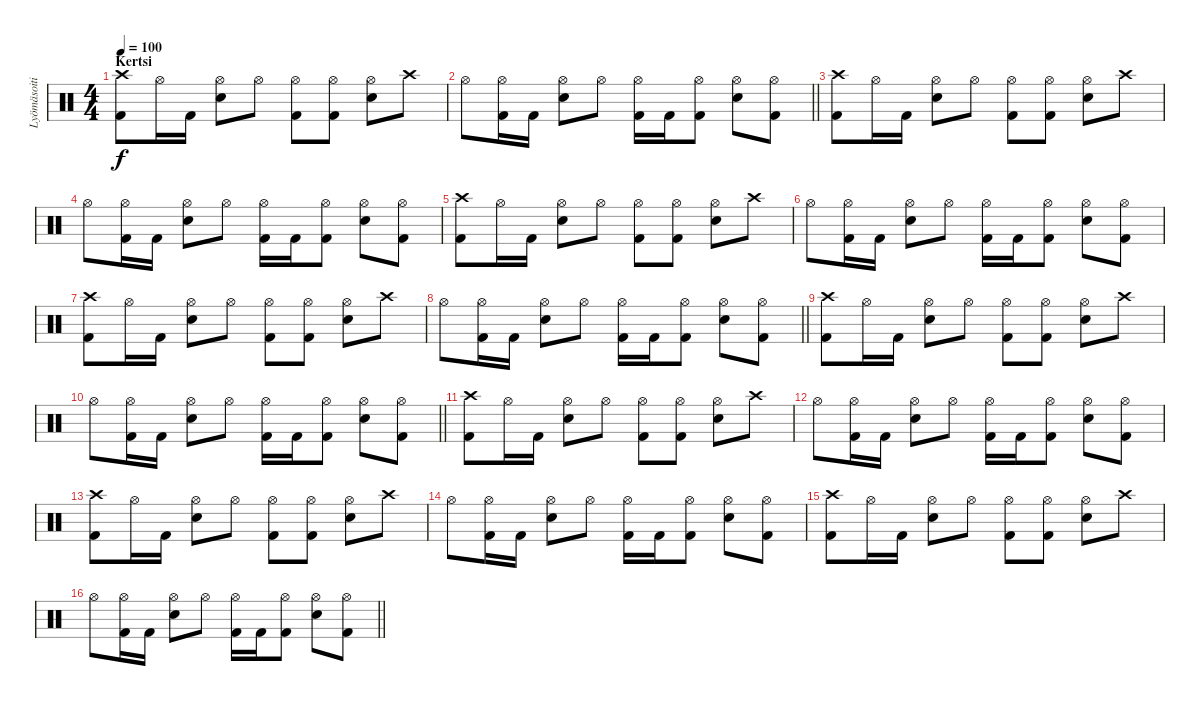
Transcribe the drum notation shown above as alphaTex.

\track ("Lyömäsoitin" "Lyömäsoiti") {instrument percussion}
\staff {score}
\articulation defaults
\ts (4 4)
\section ("" "Kertsi")
\tempo 100
\clef neutral
\ks c
("Crash high (hit)" "Kick (hit) 2").8{dy f} "Hi-Hat (open)".16 "Kick (hit) 2".16 ("Hi-Hat (open)" "Snare (hit) 2").8 "Hi-Hat (open)".8 ("Hi-Hat (open)" "Kick (hit) 2").8 ("Hi-Hat (open)" "Kick (hit) 2").8 ("Hi-Hat (open)" "Snare (hit) 2").8 "Crash high (hit)".8 |
\barLineRight lightlight "Hi-Hat (open)".8
("Hi-Hat (open)" "Kick (hit) 2").16 "Kick (hit) 2".16 ("Hi-Hat (open)" "Snare (hit) 2").8 "Hi-Hat (open)".8 ("Hi-Hat (open)" "Kick (hit) 2").16 "Kick (hit) 2".16 ("Hi-Hat (open)" "Kick (hit) 2").8 ("Hi-Hat (open)" "Snare (hit) 2").8 ("Hi-Hat (open)" "Kick (hit) 2").8 |
("Crash high (hit)" "Kick (hit) 2").8 "Hi-Hat (open)".16 "Kick (hit) 2".16 ("Hi-Hat (open)" "Snare (hit) 2").8 "Hi-Hat (open)".8 ("Hi-Hat (open)" "Kick (hit) 2").8 ("Hi-Hat (open)" "Kick (hit) 2").8 ("Hi-Hat (open)" "Snare (hit) 2").8 "Crash high (hit)".8 |
"Hi-Hat (open)".8 ("Hi-Hat (open)" "Kick (hit) 2").16 "Kick (hit) 2".16 ("Hi-Hat (open)" "Snare (hit) 2").8 "Hi-Hat (open)".8 ("Hi-Hat (open)" "Kick (hit) 2").16 "Kick (hit) 2".16 ("Hi-Hat (open)" "Kick (hit) 2").8 ("Hi-Hat (open)" "Snare (hit) 2").8 ("Hi-Hat (open)" "Kick (hit) 2").8 |
("Crash high (hit)" "Kick (hit) 2").8 "Hi-Hat (open)".16 "Kick (hit) 2".16 ("Hi-Hat (open)" "Snare (hit) 2").8 "Hi-Hat (open)".8 ("Hi-Hat (open)" "Kick (hit) 2").8 ("Hi-Hat (open)" "Kick (hit) 2").8 ("Hi-Hat (open)" "Snare (hit) 2").8 "Crash high (hit)".8 |
"Hi-Hat (open)".8 ("Hi-Hat (open)" "Kick (hit) 2").16 "Kick (hit) 2".16 ("Hi-Hat (open)" "Snare (hit) 2").8 "Hi-Hat (open)".8 ("Hi-Hat (open)" "Kick (hit) 2").16 "Kick (hit) 2".16 ("Hi-Hat (open)" "Kick (hit) 2").8 ("Hi-Hat (open)" "Snare (hit) 2").8 ("Hi-Hat (open)" "Kick (hit) 2").8 |
("Crash high (hit)" "Kick (hit) 2").8 "Hi-Hat (open)".16 "Kick (hit) 2".16 ("Hi-Hat (open)" "Snare (hit) 2").8 "Hi-Hat (open)".8 ("Hi-Hat (open)" "Kick (hit) 2").8 ("Hi-Hat (open)" "Kick (hit) 2").8 ("Hi-Hat (open)" "Snare (hit) 2").8 "Crash high (hit)".8 |
\barLineRight lightlight "Hi-Hat (open)".8
("Hi-Hat (open)" "Kick (hit) 2").16 "Kick (hit) 2".16 ("Hi-Hat (open)" "Snare (hit) 2").8 "Hi-Hat (open)".8 ("Hi-Hat (open)" "Kick (hit) 2").16 "Kick (hit) 2".16 ("Hi-Hat (open)" "Kick (hit) 2").8 ("Hi-Hat (open)" "Snare (hit) 2").8 ("Hi-Hat (open)" "Kick (hit) 2").8 |
("Crash high (hit)" "Kick (hit) 2").8 "Hi-Hat (open)".16 "Kick (hit) 2".16 ("Hi-Hat (open)" "Snare (hit) 2").8 "Hi-Hat (open)".8 ("Hi-Hat (open)" "Kick (hit) 2").8 ("Hi-Hat (open)" "Kick (hit) 2").8 ("Hi-Hat (open)" "Snare (hit) 2").8 "Crash high (hit)".8 |
\barLineRight lightlight "Hi-Hat (open)".8
("Hi-Hat (open)" "Kick (hit) 2").16 "Kick (hit) 2".16 ("Hi-Hat (open)" "Snare (hit) 2").8 "Hi-Hat (open)".8 ("Hi-Hat (open)" "Kick (hit) 2").16 "Kick (hit) 2".16 ("Hi-Hat (open)" "Kick (hit) 2").8 ("Hi-Hat (open)" "Snare (hit) 2").8 ("Hi-Hat (open)" "Kick (hit) 2").8 |
("Crash high (hit)" "Kick (hit) 2").8 "Hi-Hat (open)".16 "Kick (hit) 2".16 ("Hi-Hat (open)" "Snare (hit) 2").8 "Hi-Hat (open)".8 ("Hi-Hat (open)" "Kick (hit) 2").8 ("Hi-Hat (open)" "Kick (hit) 2").8 ("Hi-Hat (open)" "Snare (hit) 2").8 "Crash high (hit)".8 |
"Hi-Hat (open)".8 ("Hi-Hat (open)" "Kick (hit) 2").16 "Kick (hit) 2".16 ("Hi-Hat (open)" "Snare (hit) 2").8 "Hi-Hat (open)".8 ("Hi-Hat (open)" "Kick (hit) 2").16 "Kick (hit) 2".16 ("Hi-Hat (open)" "Kick (hit) 2").8 ("Hi-Hat (open)" "Snare (hit) 2").8 ("Hi-Hat (open)" "Kick (hit) 2").8 |
("Crash high (hit)" "Kick (hit) 2").8 "Hi-Hat (open)".16 "Kick (hit) 2".16 ("Hi-Hat (open)" "Snare (hit) 2").8 "Hi-Hat (open)".8 ("Hi-Hat (open)" "Kick (hit) 2").8 ("Hi-Hat (open)" "Kick (hit) 2").8 ("Hi-Hat (open)" "Snare (hit) 2").8 "Crash high (hit)".8 |
"Hi-Hat (open)".8 ("Hi-Hat (open)" "Kick (hit) 2").16 "Kick (hit) 2".16 ("Hi-Hat (open)" "Snare (hit) 2").8 "Hi-Hat (open)".8 ("Hi-Hat (open)" "Kick (hit) 2").16 "Kick (hit) 2".16 ("Hi-Hat (open)" "Kick (hit) 2").8 ("Hi-Hat (open)" "Snare (hit) 2").8 ("Hi-Hat (open)" "Kick (hit) 2").8 |
("Crash high (hit)" "Kick (hit) 2").8 "Hi-Hat (open)".16 "Kick (hit) 2".16 ("Hi-Hat (open)" "Snare (hit) 2").8 "Hi-Hat (open)".8 ("Hi-Hat (open)" "Kick (hit) 2").8 ("Hi-Hat (open)" "Kick (hit) 2").8 ("Hi-Hat (open)" "Snare (hit) 2").8 "Crash high (hit)".8 |
\barLineRight lightlight "Hi-Hat (open)".8
("Hi-Hat (open)" "Kick (hit) 2").16 "Kick (hit) 2".16 ("Hi-Hat (open)" "Snare (hit) 2").8 "Hi-Hat (open)".8 ("Hi-Hat (open)" "Kick (hit) 2").16 "Kick (hit) 2".16 ("Hi-Hat (open)" "Kick (hit) 2").8 ("Hi-Hat (open)" "Snare (hit) 2").8 ("Hi-Hat (open)" "Kick (hit) 2").8
